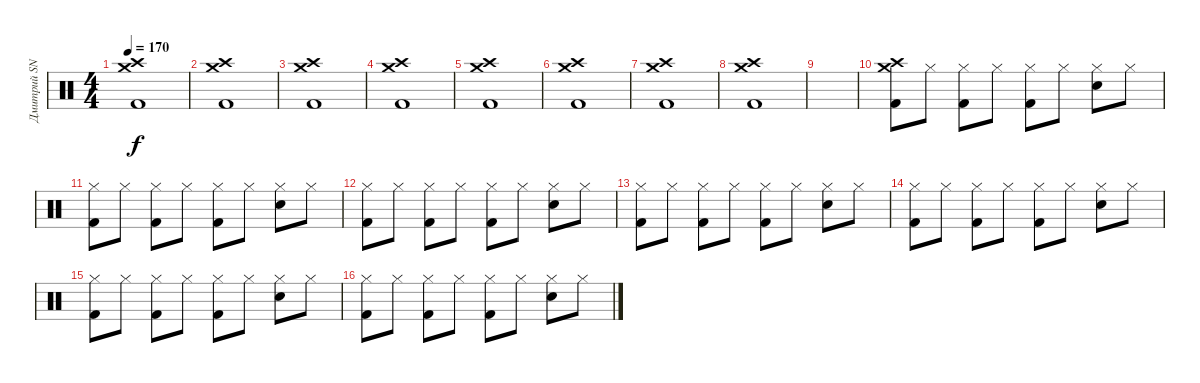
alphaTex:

\track ("Дмитрий SNAKE Хакимов" "Дмитрий SN") {instrument percussion}
\staff {score}
\articulation defaults
\ts (4 4)
\tempo 170
\clef neutral
\ks c
("Crash high (hit)" "Crash medium (hit)" "Kick (hit) 2").1{dy f} |
("Crash high (hit)" "Crash medium (hit)" "Kick (hit) 2").1 |
("Crash high (hit)" "Crash medium (hit)" "Kick (hit) 2").1 |
("Crash high (hit)" "Crash medium (hit)" "Kick (hit) 2").1 |
("Crash high (hit)" "Crash medium (hit)" "Kick (hit) 2").1 |
("Crash high (hit)" "Crash medium (hit)" "Kick (hit) 2").1 |
("Crash high (hit)" "Crash medium (hit)" "Kick (hit) 2").1 |
("Crash high (hit)" "Crash medium (hit)" "Kick (hit) 2").1 |
|
("Crash high (hit)" "Crash medium (hit)" "Kick (hit) 2").8 "Hi-Hat (closed)".8 ("Hi-Hat (closed)" "Kick (hit) 2").8 "Hi-Hat (closed)".8 ("Hi-Hat (closed)" "Kick (hit) 2").8 "Hi-Hat (closed)".8 ("Hi-Hat (closed)" "Snare (hit) 2").8 "Hi-Hat (closed)".8 |
("Hi-Hat (closed)" "Kick (hit) 2").8 "Hi-Hat (closed)".8 ("Hi-Hat (closed)" "Kick (hit) 2").8 "Hi-Hat (closed)".8 ("Hi-Hat (closed)" "Kick (hit) 2").8 "Hi-Hat (closed)".8 ("Hi-Hat (closed)" "Snare (hit) 2").8 "Hi-Hat (closed)".8 |
("Hi-Hat (closed)" "Kick (hit) 2").8 "Hi-Hat (closed)".8 ("Hi-Hat (closed)" "Kick (hit) 2").8 "Hi-Hat (closed)".8 ("Hi-Hat (closed)" "Kick (hit) 2").8 "Hi-Hat (closed)".8 ("Hi-Hat (closed)" "Snare (hit) 2").8 "Hi-Hat (closed)".8 |
("Hi-Hat (closed)" "Kick (hit) 2").8 "Hi-Hat (closed)".8 ("Hi-Hat (closed)" "Kick (hit) 2").8 "Hi-Hat (closed)".8 ("Hi-Hat (closed)" "Kick (hit) 2").8 "Hi-Hat (closed)".8 ("Hi-Hat (closed)" "Snare (hit) 2").8 "Hi-Hat (closed)".8 |
("Hi-Hat (closed)" "Kick (hit) 2").8 "Hi-Hat (closed)".8 ("Hi-Hat (closed)" "Kick (hit) 2").8 "Hi-Hat (closed)".8 ("Hi-Hat (closed)" "Kick (hit) 2").8 "Hi-Hat (closed)".8 ("Hi-Hat (closed)" "Snare (hit) 2").8 "Hi-Hat (closed)".8 |
("Hi-Hat (closed)" "Kick (hit) 2").8 "Hi-Hat (closed)".8 ("Hi-Hat (closed)" "Kick (hit) 2").8 "Hi-Hat (closed)".8 ("Hi-Hat (closed)" "Kick (hit) 2").8 "Hi-Hat (closed)".8 ("Hi-Hat (closed)" "Snare (hit) 2").8 "Hi-Hat (closed)".8 |
("Hi-Hat (closed)" "Kick (hit) 2").8 "Hi-Hat (closed)".8 ("Hi-Hat (closed)" "Kick (hit) 2").8 "Hi-Hat (closed)".8 ("Hi-Hat (closed)" "Kick (hit) 2").8 "Hi-Hat (closed)".8 ("Hi-Hat (closed)" "Snare (hit) 2").8 "Hi-Hat (closed)".8
